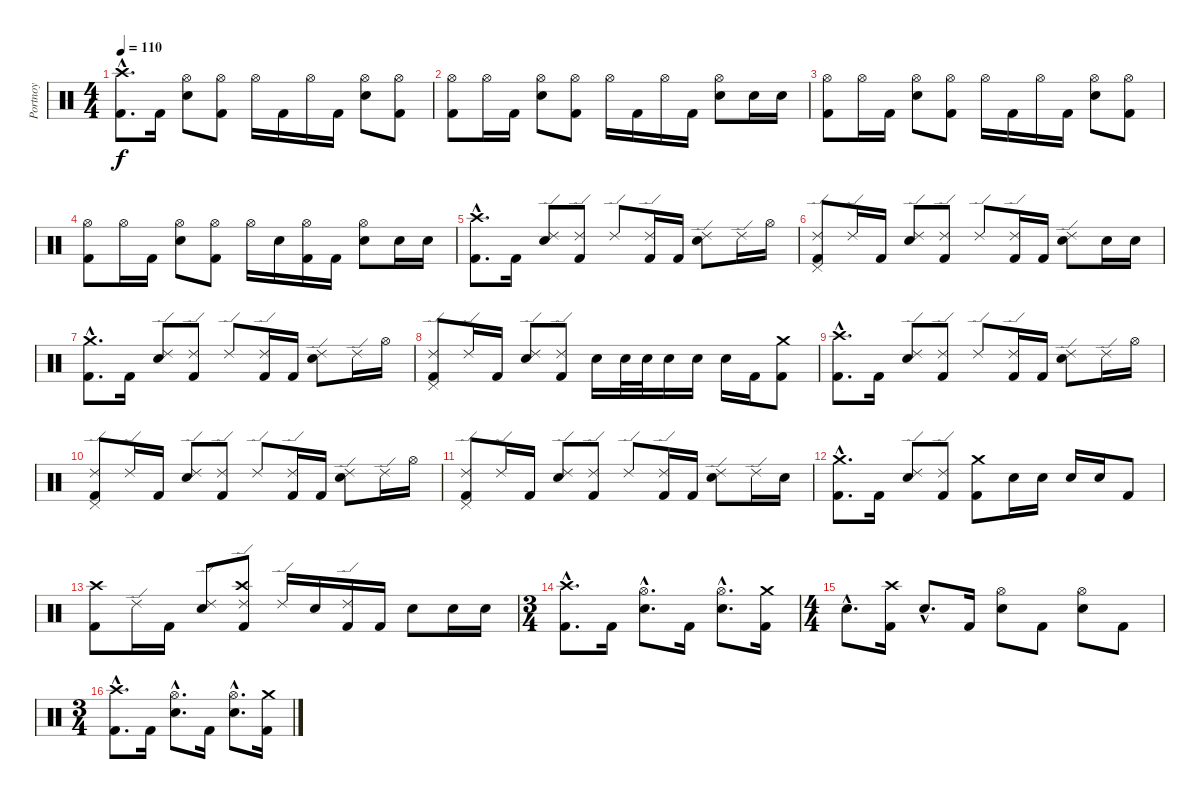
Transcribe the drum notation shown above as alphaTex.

\track ("Portnoy" "Portnoy") {instrument percussion}
\staff {score}
\articulation defaults
\ts (4 4)
\tempo 110
\clef neutral
\ks c
("Kick (hit) 2"{hac} "Crash high (hit)"{hac}).8{d dy f} "Kick (hit) 2".16 ("Hi-Hat (open)" "Snare (hit) 2").8 ("Kick (hit) 2" "Hi-Hat (open)").8 "Hi-Hat (open)".16 "Kick (hit) 2".16 "Hi-Hat (open)".16 "Kick (hit) 2".16 ("Hi-Hat (open)" "Snare (hit) 2").8 ("Kick (hit) 2" "Hi-Hat (open)").8 |
("Kick (hit) 2" "Hi-Hat (open)").8 "Hi-Hat (open)".16 "Kick (hit) 2".16 ("Hi-Hat (open)" "Snare (hit) 2").8 ("Kick (hit) 2" "Hi-Hat (open)").8 "Hi-Hat (open)".16 "Kick (hit) 2".16 "Hi-Hat (open)".16 "Kick (hit) 2".16 ("Hi-Hat (open)" "Snare (hit) 2").8 "Snare (hit) 2".16 "Snare (hit) 2".16 |
("Kick (hit) 2" "Hi-Hat (open)").8 "Hi-Hat (open)".16 "Kick (hit) 2".16 ("Hi-Hat (open)" "Snare (hit) 2").8 ("Kick (hit) 2" "Hi-Hat (open)").8 "Hi-Hat (open)".16 "Kick (hit) 2".16 "Hi-Hat (open)".16 "Kick (hit) 2".16 ("Hi-Hat (open)" "Snare (hit) 2").8 ("Kick (hit) 2" "Hi-Hat (open)").8 |
("Kick (hit) 2" "Hi-Hat (open)").8 "Hi-Hat (open)".16 "Kick (hit) 2".16 ("Hi-Hat (open)" "Snare (hit) 2").8 ("Kick (hit) 2" "Hi-Hat (open)").8 "Hi-Hat (open)".16 "Snare (hit) 2".16 ("Kick (hit) 2" "Hi-Hat (open)").16 "Kick (hit) 2".16 ("Hi-Hat (open)" "Snare (hit) 2").8 "Snare (hit) 2".16 "Snare (hit) 2".16 |
("Kick (hit) 2"{hac} "Crash high (hit)"{hac}).8{d} "Kick (hit) 2".16 ("Ride (edge) 2" "Snare (hit) 2").8 ("Kick (hit) 2" "Ride (edge) 2").8 "Ride (edge) 2".8 ("Kick (hit) 2" "Ride (edge) 2").16 "Kick (hit) 2".16 ("Ride (edge) 2" "Snare (hit) 2").8 "Ride (edge) 2".16 "Hi-Hat (open)".16 |
("Kick (hit) 2" "Pedal Hi-Hat (hit)" "Ride (edge) 2").8 "Ride (edge) 2".16 "Kick (hit) 2".16 ("Ride (edge) 2" "Snare (hit) 2").8 ("Kick (hit) 2" "Ride (edge) 2").8 "Ride (edge) 2".8 ("Kick (hit) 2" "Ride (edge) 2").16 "Kick (hit) 2".16 ("Ride (edge) 2" "Snare (hit) 2").8 "Snare (hit) 2".16 "Snare (hit) 2".16 |
("Kick (hit) 2"{hac} "Crash medium (hit)"{hac}).8{d} "Kick (hit) 2".16 ("Ride (edge) 2" "Snare (hit) 2").8 ("Kick (hit) 2" "Ride (edge) 2").8 "Ride (edge) 2".8 ("Kick (hit) 2" "Ride (edge) 2").16 "Kick (hit) 2".16 ("Ride (edge) 2" "Snare (hit) 2").8 "Ride (edge) 2".16 "Hi-Hat (open)".16 |
("Kick (hit) 2" "Pedal Hi-Hat (hit)" "Ride (edge) 2").8 "Ride (edge) 2".16 "Kick (hit) 2".16 ("Ride (edge) 2" "Snare (hit) 2").8 ("Kick (hit) 2" "Ride (edge) 2").8 "Snare (hit) 2".16 "Snare (hit) 2".32 "Snare (hit) 2".32 "Snare (hit) 2".16 "Snare (hit) 2".16 "Snare (hit) 2".16 "Kick (hit) 2".16 ("Kick (hit) 2" "Crash medium (hit)").8 |
("Kick (hit) 2"{hac} "Crash high (hit)"{hac}).8{d} "Kick (hit) 2".16 ("Ride (edge) 2" "Snare (hit) 2").8 ("Kick (hit) 2" "Ride (edge) 2").8 "Ride (edge) 2".8 ("Kick (hit) 2" "Ride (edge) 2").16 "Kick (hit) 2".16 ("Ride (edge) 2" "Snare (hit) 2").8 "Ride (edge) 2".16 "Hi-Hat (open)".16 |
("Kick (hit) 2" "Pedal Hi-Hat (hit)" "Ride (edge) 2").8 "Ride (edge) 2".16 "Kick (hit) 2".16 ("Ride (edge) 2" "Snare (hit) 2").8 ("Kick (hit) 2" "Ride (edge) 2").8 "Ride (edge) 2".8 ("Kick (hit) 2" "Ride (edge) 2").16 "Kick (hit) 2".16 ("Ride (edge) 2" "Snare (hit) 2").8 "Ride (edge) 2".16 "Hi-Hat (open)".16 |
("Kick (hit) 2" "Pedal Hi-Hat (hit)" "Ride (edge) 2").8 "Ride (edge) 2".16 "Kick (hit) 2".16 ("Ride (edge) 2" "Snare (hit) 2").8 ("Kick (hit) 2" "Ride (edge) 2").8 "Ride (edge) 2".8 ("Kick (hit) 2" "Ride (edge) 2").16 "Kick (hit) 2".16 ("Ride (edge) 2" "Snare (hit) 2").8 "Ride (edge) 2".16 "Snare (hit) 2".16 |
("Kick (hit) 2"{hac} "Crash medium (hit)"{hac}).8{d} "Kick (hit) 2".16 ("Ride (edge) 2" "Snare (hit) 2").8 ("Kick (hit) 2" "Ride (edge) 2").8 ("Kick (hit) 2" "Crash medium (hit)").8 "Snare (hit) 2".16 "Snare (hit) 2".16 "Snare (hit) 2".16 "Snare (hit) 2".16 "Kick (hit) 2".8 |
("Kick (hit) 2" "Crash high (hit)").8 "Ride (edge) 2".16 "Kick (hit) 2".16 ("Ride (edge) 2" "Snare (hit) 2").8 ("Kick (hit) 2" "Crash high (hit)" "Ride (edge) 2").8 "Ride (edge) 2".16 "Snare (hit) 2".16 ("Kick (hit) 2" "Ride (edge) 2").16 "Kick (hit) 2".16 "Snare (hit) 2".8 "Snare (hit) 2".16 "Snare (hit) 2".16 |
\ts (3 4)
("Kick (hit) 2"{hac} "Crash high (hit)"{hac}).8{d} "Kick (hit) 2".16 ("Hi-Hat (open)"{hac} "Snare (hit) 2"{hac}).8{d} "Kick (hit) 2".16 ("Hi-Hat (open)"{hac} "Snare (hit) 2"{hac}).8{d} ("Kick (hit) 2" "Crash medium (hit)").16 |
\ts (4 4)
"Snare (hit) 2"{hac}.8{d} ("Kick (hit) 2" "Crash high (hit)").16 "Snare (hit) 2"{hac}.8{d} "Kick (hit) 2".16 ("Hi-Hat (open)" "Snare (hit) 2").8 "Kick (hit) 2".8 ("Hi-Hat (open)" "Snare (hit) 2").8 "Kick (hit) 2".8 |
\ts (3 4)
("Kick (hit) 2"{hac} "Crash high (hit)"{hac}).8{d} "Kick (hit) 2".16 ("Hi-Hat (open)"{hac} "Snare (hit) 2"{hac}).8{d} "Kick (hit) 2".16 ("Hi-Hat (open)"{hac} "Snare (hit) 2"{hac}).8{d} ("Kick (hit) 2" "Crash medium (hit)").16
